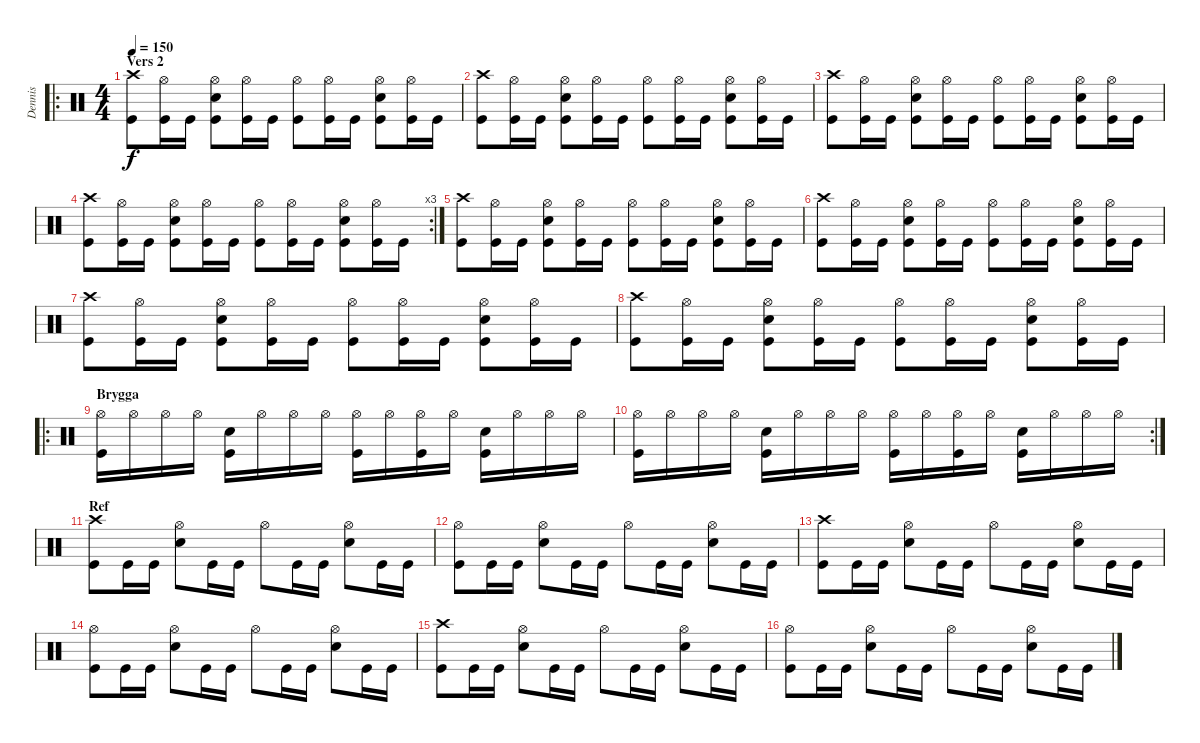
\track ("Dennis" "Dennis") {instrument percussion}
\staff {score}
\articulation defaults
\ro
\ts (4 4)
\section ("" "Vers 2")
\tempo 150
\clef neutral
\ks c
("Crash high (hit)" "Kick (hit)").8{dy f} ("Hi-Hat (open)" "Kick (hit)").16 "Kick (hit)".16 ("Hi-Hat (open)" "Kick (hit)" "Snare (hit) 2").8 ("Hi-Hat (open)" "Kick (hit)").16 "Kick (hit)".16 ("Hi-Hat (open)" "Kick (hit)").8 ("Hi-Hat (open)" "Kick (hit)").16 "Kick (hit)".16 ("Hi-Hat (open)" "Kick (hit)" "Snare (hit) 2").8 ("Hi-Hat (open)" "Kick (hit)").16 "Kick (hit)".16 |
("Crash high (hit)" "Kick (hit)").8 ("Hi-Hat (open)" "Kick (hit)").16 "Kick (hit)".16 ("Hi-Hat (open)" "Kick (hit)" "Snare (hit) 2").8 ("Hi-Hat (open)" "Kick (hit)").16 "Kick (hit)".16 ("Hi-Hat (open)" "Kick (hit)").8 ("Hi-Hat (open)" "Kick (hit)").16 "Kick (hit)".16 ("Hi-Hat (open)" "Kick (hit)" "Snare (hit) 2").8 ("Hi-Hat (open)" "Kick (hit)").16 "Kick (hit)".16 |
("Crash high (hit)" "Kick (hit)").8 ("Hi-Hat (open)" "Kick (hit)").16 "Kick (hit)".16 ("Hi-Hat (open)" "Kick (hit)" "Snare (hit) 2").8 ("Hi-Hat (open)" "Kick (hit)").16 "Kick (hit)".16 ("Hi-Hat (open)" "Kick (hit)").8 ("Hi-Hat (open)" "Kick (hit)").16 "Kick (hit)".16 ("Hi-Hat (open)" "Kick (hit)" "Snare (hit) 2").8 ("Hi-Hat (open)" "Kick (hit)").16 "Kick (hit)".16 |
\rc 3
("Crash high (hit)" "Kick (hit)").8 ("Hi-Hat (open)" "Kick (hit)").16 "Kick (hit)".16 ("Hi-Hat (open)" "Kick (hit)" "Snare (hit) 2").8 ("Hi-Hat (open)" "Kick (hit)").16 "Kick (hit)".16 ("Hi-Hat (open)" "Kick (hit)").8 ("Hi-Hat (open)" "Kick (hit)").16 "Kick (hit)".16 ("Hi-Hat (open)" "Kick (hit)" "Snare (hit) 2").8 ("Hi-Hat (open)" "Kick (hit)").16 "Kick (hit)".16 |
("Crash high (hit)" "Kick (hit)").8 ("Hi-Hat (open)" "Kick (hit)").16 "Kick (hit)".16 ("Hi-Hat (open)" "Kick (hit)" "Snare (hit) 2").8 ("Hi-Hat (open)" "Kick (hit)").16 "Kick (hit)".16 ("Hi-Hat (open)" "Kick (hit)").8 ("Hi-Hat (open)" "Kick (hit)").16 "Kick (hit)".16 ("Hi-Hat (open)" "Kick (hit)" "Snare (hit) 2").8 ("Hi-Hat (open)" "Kick (hit)").16 "Kick (hit)".16 |
("Crash high (hit)" "Kick (hit)").8 ("Hi-Hat (open)" "Kick (hit)").16 "Kick (hit)".16 ("Hi-Hat (open)" "Kick (hit)" "Snare (hit) 2").8 ("Hi-Hat (open)" "Kick (hit)").16 "Kick (hit)".16 ("Hi-Hat (open)" "Kick (hit)").8 ("Hi-Hat (open)" "Kick (hit)").16 "Kick (hit)".16 ("Hi-Hat (open)" "Kick (hit)" "Snare (hit) 2").8 ("Hi-Hat (open)" "Kick (hit)").16 "Kick (hit)".16 |
("Crash high (hit)" "Kick (hit)").8 ("Hi-Hat (open)" "Kick (hit)").16 "Kick (hit)".16 ("Hi-Hat (open)" "Kick (hit)" "Snare (hit) 2").8 ("Hi-Hat (open)" "Kick (hit)").16 "Kick (hit)".16 ("Hi-Hat (open)" "Kick (hit)").8 ("Hi-Hat (open)" "Kick (hit)").16 "Kick (hit)".16 ("Hi-Hat (open)" "Kick (hit)" "Snare (hit) 2").8 ("Hi-Hat (open)" "Kick (hit)").16 "Kick (hit)".16 |
("Crash high (hit)" "Kick (hit)").8 ("Hi-Hat (open)" "Kick (hit)").16 "Kick (hit)".16 ("Hi-Hat (open)" "Kick (hit)" "Snare (hit) 2").8 ("Hi-Hat (open)" "Kick (hit)").16 "Kick (hit)".16 ("Hi-Hat (open)" "Kick (hit)").8 ("Hi-Hat (open)" "Kick (hit)").16 "Kick (hit)".16 ("Hi-Hat (open)" "Kick (hit)" "Snare (hit) 2").8 ("Hi-Hat (open)" "Kick (hit)").16 "Kick (hit)".16 |
\ro
\section ("" "Brygga")
("Hi-Hat (open)" "Kick (hit)").16 "Hi-Hat (open)".16 "Hi-Hat (open)".16 "Hi-Hat (open)".16 ("Snare (hit) 2" "Kick (hit)").16 "Hi-Hat (open)".16 "Hi-Hat (open)".16 "Hi-Hat (open)".16 ("Hi-Hat (open)" "Kick (hit)").16 "Hi-Hat (open)".16 ("Hi-Hat (open)" "Kick (hit)").16 "Hi-Hat (open)".16 ("Snare (hit) 2" "Kick (hit)").16 "Hi-Hat (open)".16 "Hi-Hat (open)".16 "Hi-Hat (open)".16 |
\rc 2
("Hi-Hat (open)" "Kick (hit)").16 "Hi-Hat (open)".16 "Hi-Hat (open)".16 "Hi-Hat (open)".16 ("Snare (hit) 2" "Kick (hit)").16 "Hi-Hat (open)".16 "Hi-Hat (open)".16 "Hi-Hat (open)".16 ("Hi-Hat (open)" "Kick (hit)").16 "Hi-Hat (open)".16 ("Hi-Hat (open)" "Kick (hit)").16 "Hi-Hat (open)".16 ("Snare (hit) 2" "Kick (hit)").16 "Hi-Hat (open)".16 "Hi-Hat (open)".16 "Hi-Hat (open)".16 |
\section ("" "Ref")
("Crash high (hit)" "Kick (hit)").8 "Kick (hit)".16 "Kick (hit)".16 ("Hi-Hat (open)" "Snare (hit) 2").8 "Kick (hit)".16 "Kick (hit)".16 "Hi-Hat (open)".8 "Kick (hit)".16 "Kick (hit)".16 ("Hi-Hat (open)" "Snare (hit) 2").8 "Kick (hit)".16 "Kick (hit)".16 |
("Hi-Hat (open)" "Kick (hit)").8 "Kick (hit)".16 "Kick (hit)".16 ("Hi-Hat (open)" "Snare (hit) 2").8 "Kick (hit)".16 "Kick (hit)".16 "Hi-Hat (open)".8 "Kick (hit)".16 "Kick (hit)".16 ("Hi-Hat (open)" "Snare (hit) 2").8 "Kick (hit)".16 "Kick (hit)".16 |
("Crash high (hit)" "Kick (hit)").8 "Kick (hit)".16 "Kick (hit)".16 ("Hi-Hat (open)" "Snare (hit) 2").8 "Kick (hit)".16 "Kick (hit)".16 "Hi-Hat (open)".8 "Kick (hit)".16 "Kick (hit)".16 ("Hi-Hat (open)" "Snare (hit) 2").8 "Kick (hit)".16 "Kick (hit)".16 |
("Hi-Hat (open)" "Kick (hit)").8 "Kick (hit)".16 "Kick (hit)".16 ("Hi-Hat (open)" "Snare (hit) 2").8 "Kick (hit)".16 "Kick (hit)".16 "Hi-Hat (open)".8 "Kick (hit)".16 "Kick (hit)".16 ("Hi-Hat (open)" "Snare (hit) 2").8 "Kick (hit)".16 "Kick (hit)".16 |
("Crash high (hit)" "Kick (hit)").8 "Kick (hit)".16 "Kick (hit)".16 ("Hi-Hat (open)" "Snare (hit) 2").8 "Kick (hit)".16 "Kick (hit)".16 "Hi-Hat (open)".8 "Kick (hit)".16 "Kick (hit)".16 ("Hi-Hat (open)" "Snare (hit) 2").8 "Kick (hit)".16 "Kick (hit)".16 |
("Hi-Hat (open)" "Kick (hit)").8 "Kick (hit)".16 "Kick (hit)".16 ("Hi-Hat (open)" "Snare (hit) 2").8 "Kick (hit)".16 "Kick (hit)".16 "Hi-Hat (open)".8 "Kick (hit)".16 "Kick (hit)".16 ("Hi-Hat (open)" "Snare (hit) 2").8 "Kick (hit)".16 "Kick (hit)".16
